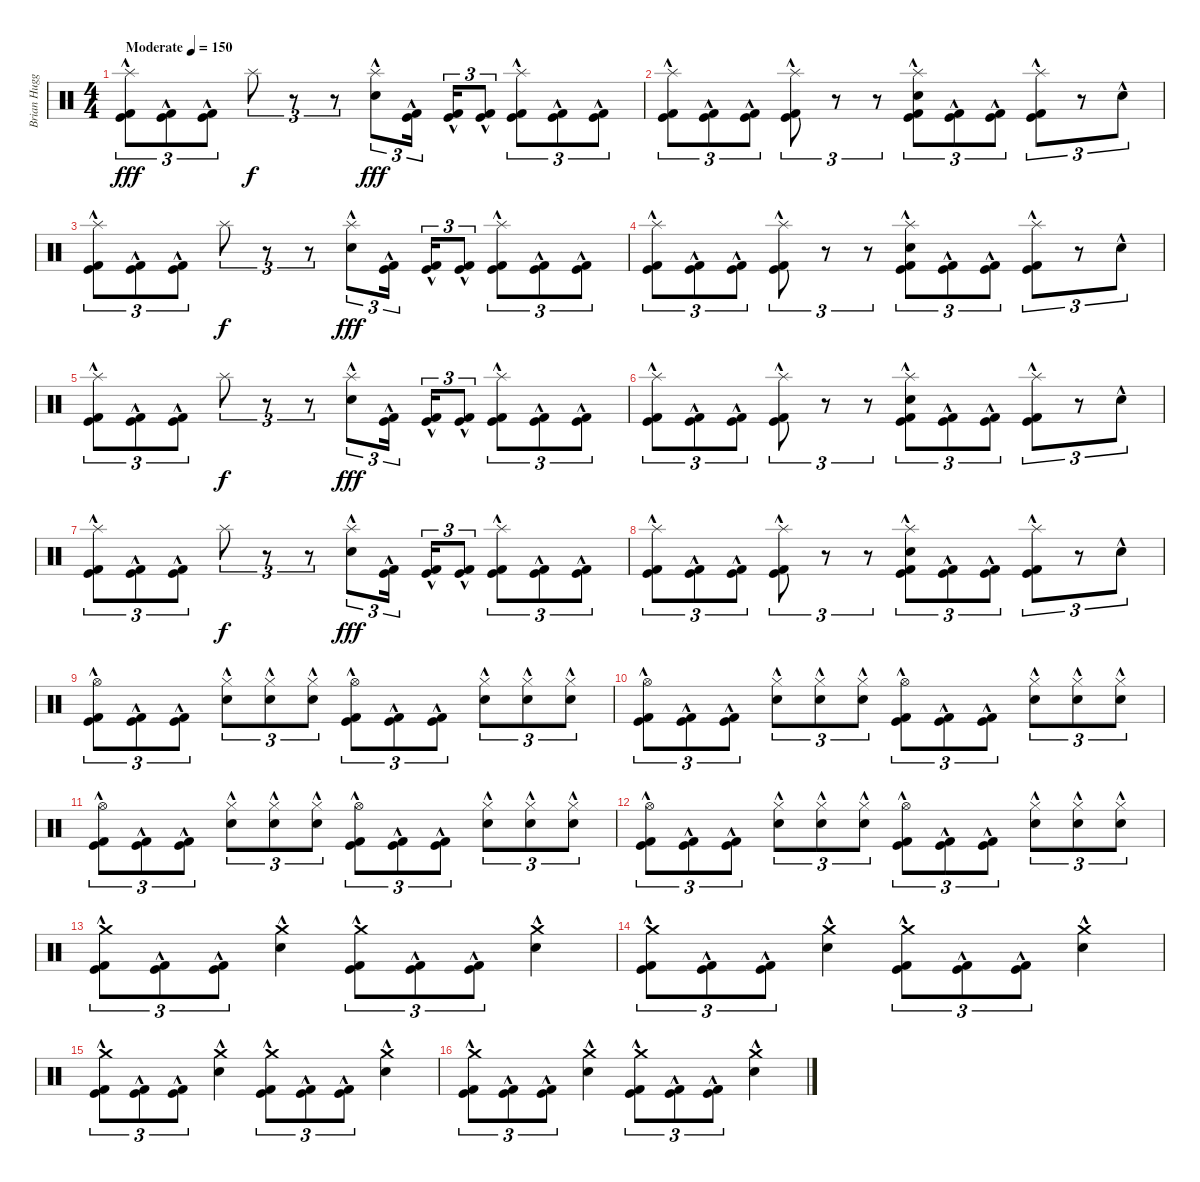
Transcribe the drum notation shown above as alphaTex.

\track ("Brian Huggins (Drums)" "Brian Hugg") {instrument percussion}
\staff {score}
\articulation defaults
\ts (4 4)
\tempo (150 "Moderate")
\clef neutral
\ks c
("Splash (hit)" "Kick (hit)"{hac} "Kick (hit) 2"{hac}).8{tu (3 2) dy fff} ("Kick (hit)"{hac} "Kick (hit) 2"{hac}).8{tu (3 2)} ("Kick (hit)"{hac} "Kick (hit) 2"{hac}).8{tu (3 2)} "Splash (hit)".8{tu (3 2) dy f} r.8{tu (3 2)} r.8{tu (3 2)} ("Splash (hit)" "Snare (hit) 2"{hac}).8{tu (3 2) dy fff} ("Kick (hit)"{hac} "Kick (hit) 2"{hac}).16{tu (3 2) beam splitsecondary} ("Kick (hit)"{hac} "Kick (hit) 2"{hac}).16{tu (3 2)} ("Kick (hit)"{hac} "Kick (hit) 2"{hac}).8{tu (3 2)} ("Splash (hit)" "Kick (hit)"{hac} "Kick (hit) 2"{hac}).8{tu (3 2)} ("Kick (hit)"{hac} "Kick (hit) 2"{hac}).8{tu (3 2)} ("Kick (hit)"{hac} "Kick (hit) 2"{hac}).8{tu (3 2)} |
("Splash (hit)" "Kick (hit)"{hac} "Kick (hit) 2"{hac}).8{tu (3 2)} ("Kick (hit)"{hac} "Kick (hit) 2"{hac}).8{tu (3 2)} ("Kick (hit)"{hac} "Kick (hit) 2"{hac}).8{tu (3 2)} ("Splash (hit)" "Kick (hit)"{hac} "Kick (hit) 2"{hac}).8{tu (3 2)} r.8{tu (3 2)} r.8{tu (3 2)} ("Splash (hit)" "Snare (hit) 2"{hac} "Kick (hit)"{hac} "Kick (hit) 2"{hac}).8{tu (3 2)} ("Kick (hit)"{hac} "Kick (hit) 2"{hac}).8{tu (3 2)} ("Kick (hit)"{hac} "Kick (hit) 2"{hac}).8{tu (3 2)} ("Splash (hit)" "Kick (hit)"{hac} "Kick (hit) 2"{hac}).8{tu (3 2)} r.8{tu (3 2)} "Snare (hit) 2"{hac}.8{tu (3 2)} |
("Splash (hit)" "Kick (hit)"{hac} "Kick (hit) 2"{hac}).8{tu (3 2)} ("Kick (hit)"{hac} "Kick (hit) 2"{hac}).8{tu (3 2)} ("Kick (hit)"{hac} "Kick (hit) 2"{hac}).8{tu (3 2)} "Splash (hit)".8{tu (3 2) dy f} r.8{tu (3 2)} r.8{tu (3 2)} ("Splash (hit)" "Snare (hit) 2"{hac}).8{tu (3 2) dy fff} ("Kick (hit)"{hac} "Kick (hit) 2"{hac}).16{tu (3 2) beam splitsecondary} ("Kick (hit)"{hac} "Kick (hit) 2"{hac}).16{tu (3 2)} ("Kick (hit)"{hac} "Kick (hit) 2"{hac}).8{tu (3 2)} ("Splash (hit)" "Kick (hit)"{hac} "Kick (hit) 2"{hac}).8{tu (3 2)} ("Kick (hit)"{hac} "Kick (hit) 2"{hac}).8{tu (3 2)} ("Kick (hit)"{hac} "Kick (hit) 2"{hac}).8{tu (3 2)} |
("Splash (hit)" "Kick (hit)"{hac} "Kick (hit) 2"{hac}).8{tu (3 2)} ("Kick (hit)"{hac} "Kick (hit) 2"{hac}).8{tu (3 2)} ("Kick (hit)"{hac} "Kick (hit) 2"{hac}).8{tu (3 2)} ("Splash (hit)" "Kick (hit)"{hac} "Kick (hit) 2"{hac}).8{tu (3 2)} r.8{tu (3 2)} r.8{tu (3 2)} ("Splash (hit)" "Snare (hit) 2"{hac} "Kick (hit)"{hac} "Kick (hit) 2"{hac}).8{tu (3 2)} ("Kick (hit)"{hac} "Kick (hit) 2"{hac}).8{tu (3 2)} ("Kick (hit)"{hac} "Kick (hit) 2"{hac}).8{tu (3 2)} ("Splash (hit)" "Kick (hit)"{hac} "Kick (hit) 2"{hac}).8{tu (3 2)} r.8{tu (3 2)} "Snare (hit) 2"{hac}.8{tu (3 2)} |
("Splash (hit)" "Kick (hit)"{hac} "Kick (hit) 2"{hac}).8{tu (3 2)} ("Kick (hit)"{hac} "Kick (hit) 2"{hac}).8{tu (3 2)} ("Kick (hit)"{hac} "Kick (hit) 2"{hac}).8{tu (3 2)} "Splash (hit)".8{tu (3 2) dy f} r.8{tu (3 2)} r.8{tu (3 2)} ("Splash (hit)" "Snare (hit) 2"{hac}).8{tu (3 2) dy fff} ("Kick (hit)"{hac} "Kick (hit) 2"{hac}).16{tu (3 2) beam splitsecondary} ("Kick (hit)"{hac} "Kick (hit) 2"{hac}).16{tu (3 2)} ("Kick (hit)"{hac} "Kick (hit) 2"{hac}).8{tu (3 2)} ("Splash (hit)" "Kick (hit)"{hac} "Kick (hit) 2"{hac}).8{tu (3 2)} ("Kick (hit)"{hac} "Kick (hit) 2"{hac}).8{tu (3 2)} ("Kick (hit)"{hac} "Kick (hit) 2"{hac}).8{tu (3 2)} |
("Splash (hit)" "Kick (hit)"{hac} "Kick (hit) 2"{hac}).8{tu (3 2)} ("Kick (hit)"{hac} "Kick (hit) 2"{hac}).8{tu (3 2)} ("Kick (hit)"{hac} "Kick (hit) 2"{hac}).8{tu (3 2)} ("Splash (hit)" "Kick (hit)"{hac} "Kick (hit) 2"{hac}).8{tu (3 2)} r.8{tu (3 2)} r.8{tu (3 2)} ("Splash (hit)" "Snare (hit) 2"{hac} "Kick (hit)"{hac} "Kick (hit) 2"{hac}).8{tu (3 2)} ("Kick (hit)"{hac} "Kick (hit) 2"{hac}).8{tu (3 2)} ("Kick (hit)"{hac} "Kick (hit) 2"{hac}).8{tu (3 2)} ("Splash (hit)" "Kick (hit)"{hac} "Kick (hit) 2"{hac}).8{tu (3 2)} r.8{tu (3 2)} "Snare (hit) 2"{hac}.8{tu (3 2)} |
("Splash (hit)" "Kick (hit)"{hac} "Kick (hit) 2"{hac}).8{tu (3 2)} ("Kick (hit)"{hac} "Kick (hit) 2"{hac}).8{tu (3 2)} ("Kick (hit)"{hac} "Kick (hit) 2"{hac}).8{tu (3 2)} "Splash (hit)".8{tu (3 2) dy f} r.8{tu (3 2)} r.8{tu (3 2)} ("Splash (hit)" "Snare (hit) 2"{hac}).8{tu (3 2) dy fff} ("Kick (hit)"{hac} "Kick (hit) 2"{hac}).16{tu (3 2) beam splitsecondary} ("Kick (hit)"{hac} "Kick (hit) 2"{hac}).16{tu (3 2)} ("Kick (hit)"{hac} "Kick (hit) 2"{hac}).8{tu (3 2)} ("Splash (hit)" "Kick (hit)"{hac} "Kick (hit) 2"{hac}).8{tu (3 2)} ("Kick (hit)"{hac} "Kick (hit) 2"{hac}).8{tu (3 2)} ("Kick (hit)"{hac} "Kick (hit) 2"{hac}).8{tu (3 2)} |
("Splash (hit)" "Kick (hit)"{hac} "Kick (hit) 2"{hac}).8{tu (3 2)} ("Kick (hit)"{hac} "Kick (hit) 2"{hac}).8{tu (3 2)} ("Kick (hit)"{hac} "Kick (hit) 2"{hac}).8{tu (3 2)} ("Splash (hit)" "Kick (hit)"{hac} "Kick (hit) 2"{hac}).8{tu (3 2)} r.8{tu (3 2)} r.8{tu (3 2)} ("Splash (hit)" "Snare (hit) 2"{hac} "Kick (hit)"{hac} "Kick (hit) 2"{hac}).8{tu (3 2)} ("Kick (hit)"{hac} "Kick (hit) 2"{hac}).8{tu (3 2)} ("Kick (hit)"{hac} "Kick (hit) 2"{hac}).8{tu (3 2)} ("Splash (hit)" "Kick (hit)"{hac} "Kick (hit) 2"{hac}).8{tu (3 2)} r.8{tu (3 2)} "Snare (hit) 2"{hac}.8{tu (3 2)} |
("Hi-Hat (open)" "Kick (hit)"{hac} "Kick (hit) 2"{hac}).8{tu (3 2)} ("Kick (hit)"{hac} "Kick (hit) 2"{hac}).8{tu (3 2)} ("Kick (hit)"{hac} "Kick (hit) 2"{hac}).8{tu (3 2)} ("Hi-Hat (closed)" "Snare (hit) 2"{hac}).8{tu (3 2)} ("Hi-Hat (closed)" "Snare (hit) 2"{hac}).8{tu (3 2)} ("Hi-Hat (closed)" "Snare (hit) 2"{hac}).8{tu (3 2)} ("Hi-Hat (open)" "Kick (hit)"{hac} "Kick (hit) 2"{hac}).8{tu (3 2)} ("Kick (hit)"{hac} "Kick (hit) 2"{hac}).8{tu (3 2)} ("Kick (hit)"{hac} "Kick (hit) 2"{hac}).8{tu (3 2)} ("Hi-Hat (closed)" "Snare (hit) 2"{hac}).8{tu (3 2)} ("Hi-Hat (closed)" "Snare (hit) 2"{hac}).8{tu (3 2)} ("Hi-Hat (closed)" "Snare (hit) 2"{hac}).8{tu (3 2)} |
("Hi-Hat (open)" "Kick (hit)"{hac} "Kick (hit) 2"{hac}).8{tu (3 2)} ("Kick (hit)"{hac} "Kick (hit) 2"{hac}).8{tu (3 2)} ("Kick (hit)"{hac} "Kick (hit) 2"{hac}).8{tu (3 2)} ("Hi-Hat (closed)" "Snare (hit) 2"{hac}).8{tu (3 2)} ("Hi-Hat (closed)" "Snare (hit) 2"{hac}).8{tu (3 2)} ("Hi-Hat (closed)" "Snare (hit) 2"{hac}).8{tu (3 2)} ("Hi-Hat (open)" "Kick (hit)"{hac} "Kick (hit) 2"{hac}).8{tu (3 2)} ("Kick (hit)"{hac} "Kick (hit) 2"{hac}).8{tu (3 2)} ("Kick (hit)"{hac} "Kick (hit) 2"{hac}).8{tu (3 2)} ("Hi-Hat (closed)" "Snare (hit) 2"{hac}).8{tu (3 2)} ("Hi-Hat (closed)" "Snare (hit) 2"{hac}).8{tu (3 2)} ("Hi-Hat (closed)" "Snare (hit) 2"{hac}).8{tu (3 2)} |
("Hi-Hat (open)" "Kick (hit)"{hac} "Kick (hit) 2"{hac}).8{tu (3 2)} ("Kick (hit)"{hac} "Kick (hit) 2"{hac}).8{tu (3 2)} ("Kick (hit)"{hac} "Kick (hit) 2"{hac}).8{tu (3 2)} ("Hi-Hat (closed)" "Snare (hit) 2"{hac}).8{tu (3 2)} ("Hi-Hat (closed)" "Snare (hit) 2"{hac}).8{tu (3 2)} ("Hi-Hat (closed)" "Snare (hit) 2"{hac}).8{tu (3 2)} ("Hi-Hat (open)" "Kick (hit)"{hac} "Kick (hit) 2"{hac}).8{tu (3 2)} ("Kick (hit)"{hac} "Kick (hit) 2"{hac}).8{tu (3 2)} ("Kick (hit)"{hac} "Kick (hit) 2"{hac}).8{tu (3 2)} ("Hi-Hat (closed)" "Snare (hit) 2"{hac}).8{tu (3 2)} ("Hi-Hat (closed)" "Snare (hit) 2"{hac}).8{tu (3 2)} ("Hi-Hat (closed)" "Snare (hit) 2"{hac}).8{tu (3 2)} |
("Hi-Hat (open)" "Kick (hit)"{hac} "Kick (hit) 2"{hac}).8{tu (3 2)} ("Kick (hit)"{hac} "Kick (hit) 2"{hac}).8{tu (3 2)} ("Kick (hit)"{hac} "Kick (hit) 2"{hac}).8{tu (3 2)} ("Hi-Hat (closed)" "Snare (hit) 2"{hac}).8{tu (3 2)} ("Hi-Hat (closed)" "Snare (hit) 2"{hac}).8{tu (3 2)} ("Hi-Hat (closed)" "Snare (hit) 2"{hac}).8{tu (3 2)} ("Hi-Hat (open)" "Kick (hit)"{hac} "Kick (hit) 2"{hac}).8{tu (3 2)} ("Kick (hit)"{hac} "Kick (hit) 2"{hac}).8{tu (3 2)} ("Kick (hit)"{hac} "Kick (hit) 2"{hac}).8{tu (3 2)} ("Hi-Hat (closed)" "Snare (hit) 2"{hac}).8{tu (3 2)} ("Hi-Hat (closed)" "Snare (hit) 2"{hac}).8{tu (3 2)} ("Hi-Hat (closed)" "Snare (hit) 2"{hac}).8{tu (3 2)} |
("Crash medium (hit)" "Kick (hit)"{hac} "Kick (hit) 2"{hac}).8{tu (3 2)} ("Kick (hit)"{hac} "Kick (hit) 2"{hac}).8{tu (3 2)} ("Kick (hit)"{hac} "Kick (hit) 2"{hac}).8{tu (3 2)} ("Crash medium (hit)" "Snare (hit) 2"{hac}).4 ("Crash medium (hit)" "Kick (hit)"{hac} "Kick (hit) 2"{hac}).8{tu (3 2)} ("Kick (hit)"{hac} "Kick (hit) 2"{hac}).8{tu (3 2)} ("Kick (hit)"{hac} "Kick (hit) 2"{hac}).8{tu (3 2)} ("Crash medium (hit)" "Snare (hit) 2"{hac}).4 |
("Crash medium (hit)" "Kick (hit)"{hac} "Kick (hit) 2"{hac}).8{tu (3 2)} ("Kick (hit)"{hac} "Kick (hit) 2"{hac}).8{tu (3 2)} ("Kick (hit)"{hac} "Kick (hit) 2"{hac}).8{tu (3 2)} ("Crash medium (hit)" "Snare (hit) 2"{hac}).4 ("Crash medium (hit)" "Kick (hit)"{hac} "Kick (hit) 2"{hac}).8{tu (3 2)} ("Kick (hit)"{hac} "Kick (hit) 2"{hac}).8{tu (3 2)} ("Kick (hit)"{hac} "Kick (hit) 2"{hac}).8{tu (3 2)} ("Crash medium (hit)" "Snare (hit) 2"{hac}).4 |
("Crash medium (hit)" "Kick (hit)"{hac} "Kick (hit) 2"{hac}).8{tu (3 2)} ("Kick (hit)"{hac} "Kick (hit) 2"{hac}).8{tu (3 2)} ("Kick (hit)"{hac} "Kick (hit) 2"{hac}).8{tu (3 2)} ("Crash medium (hit)" "Snare (hit) 2"{hac}).4 ("Crash medium (hit)" "Kick (hit)"{hac} "Kick (hit) 2"{hac}).8{tu (3 2)} ("Kick (hit)"{hac} "Kick (hit) 2"{hac}).8{tu (3 2)} ("Kick (hit)"{hac} "Kick (hit) 2"{hac}).8{tu (3 2)} ("Crash medium (hit)" "Snare (hit) 2"{hac}).4 |
("Crash medium (hit)" "Kick (hit)"{hac} "Kick (hit) 2"{hac}).8{tu (3 2)} ("Kick (hit)"{hac} "Kick (hit) 2"{hac}).8{tu (3 2)} ("Kick (hit)"{hac} "Kick (hit) 2"{hac}).8{tu (3 2)} ("Crash medium (hit)" "Snare (hit) 2"{hac}).4 ("Crash medium (hit)" "Kick (hit)"{hac} "Kick (hit) 2"{hac}).8{tu (3 2)} ("Kick (hit)"{hac} "Kick (hit) 2"{hac}).8{tu (3 2)} ("Kick (hit)"{hac} "Kick (hit) 2"{hac}).8{tu (3 2)} ("Crash medium (hit)" "Snare (hit) 2"{hac}).4
